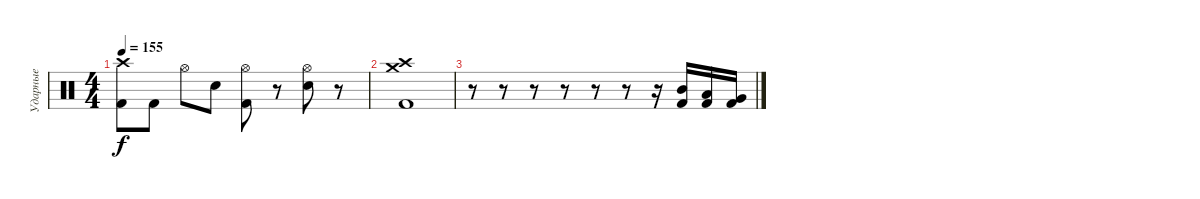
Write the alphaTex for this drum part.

\track ("Ударные" "Ударные") {instrument percussion}
\staff {score}
\articulation defaults
\ts (4 4)
\tempo 155
\clef neutral
\ks c
("Crash high (hit)" "Kick (hit) 2").8{dy f} "Kick (hit) 2".8 "Hi-Hat (open)".8 "Electric Snare (hit)".8 ("Hi-Hat (open)" "Kick (hit) 2").8 r.8 ("Hi-Hat (open)" "Electric Snare (hit)").8 r.8 |
("Crash medium (hit)" "Crash high (hit)" "Kick (hit) 2").1 |
r.8 r.8 r.8 r.8 r.8 r.8 r.16 ("Mid Tom (hit)" "Kick (hit) 2").16 ("Low Tom (hit)" "Kick (hit) 2").16 ("Very Low Tom (hit)" "Kick (hit) 2").16
